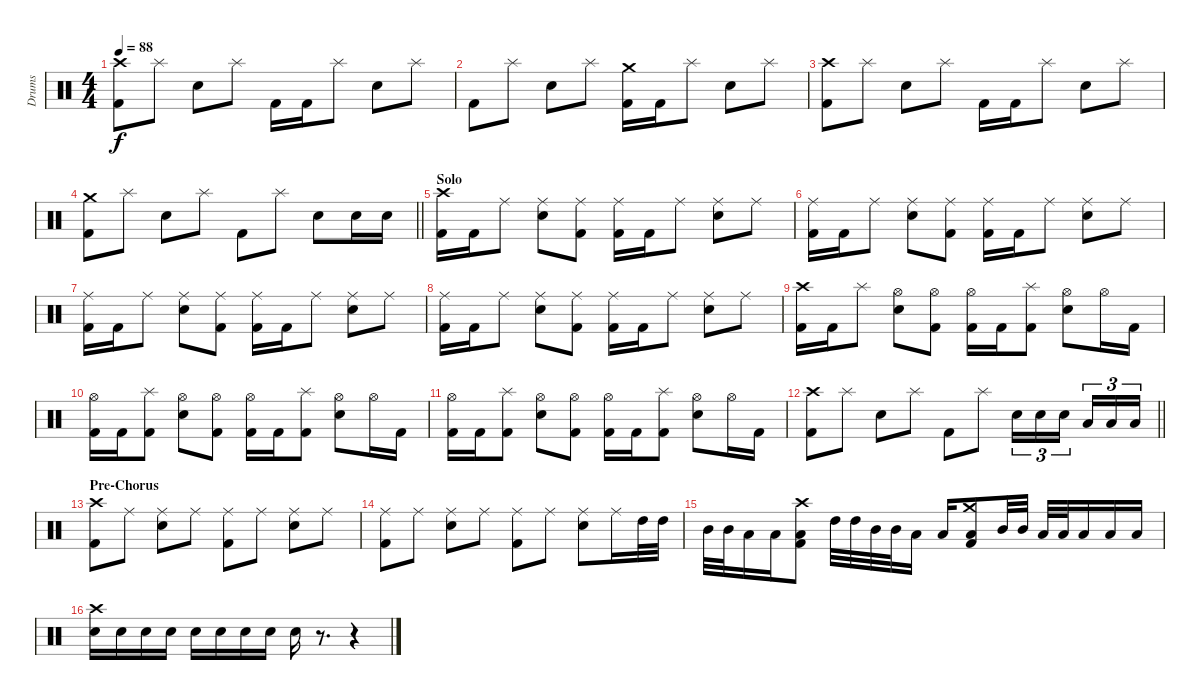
\track ("Drums" "Drums") {instrument percussion}
\staff {score}
\articulation defaults
\ts (4 4)
\tempo 88
\clef neutral
\ks c
("Crash high (hit)" "Kick (hit) 2").8{dy f} "Splash (hit)".8 "Snare (hit) 2".8 "Splash (hit)".8 "Kick (hit) 2".16 "Kick (hit) 2".16 "Splash (hit)".8 "Snare (hit) 2".8 "Splash (hit)".8 |
"Kick (hit) 2".8 "Splash (hit)".8 "Snare (hit) 2".8 "Splash (hit)".8 ("Crash medium (hit)" "Kick (hit) 2").16 "Kick (hit) 2".16 "Splash (hit)".8 "Snare (hit) 2".8 "Splash (hit)".8 |
("Crash high (hit)" "Kick (hit) 2").8 "Splash (hit)".8 "Snare (hit) 2".8 "Splash (hit)".8 "Kick (hit) 2".16 "Kick (hit) 2".16 "Splash (hit)".8 "Snare (hit) 2".8 "Splash (hit)".8 |
\barLineRight lightlight
("Crash medium (hit)" "Kick (hit) 2").8 "Splash (hit)".8 "Snare (hit) 2".8 "Splash (hit)".8 "Kick (hit) 2".8 "Splash (hit)".8 "Snare (hit) 2".8 "Snare (hit) 2".16 "Snare (hit) 2".16 |
\section ("" "Solo")
("Crash high (hit)" "Kick (hit) 2").16 "Kick (hit) 2".16 "Ride (middle)".8 ("Ride (middle)" "Snare (hit) 2").8 ("Ride (middle)" "Kick (hit) 2").8 ("Ride (middle)" "Kick (hit) 2").16 "Kick (hit) 2".16 "Ride (middle)".8 ("Ride (middle)" "Snare (hit) 2").8 "Ride (middle)".8 |
("Ride (middle)" "Kick (hit) 2").16 "Kick (hit) 2".16 "Ride (middle)".8 ("Ride (middle)" "Snare (hit) 2").8 ("Ride (middle)" "Kick (hit) 2").8 ("Ride (middle)" "Kick (hit) 2").16 "Kick (hit) 2".16 "Ride (middle)".8 ("Ride (middle)" "Snare (hit) 2").8 "Ride (middle)".8 |
("Ride (middle)" "Kick (hit) 2").16 "Kick (hit) 2".16 "Ride (middle)".8 ("Ride (middle)" "Snare (hit) 2").8 ("Ride (middle)" "Kick (hit) 2").8 ("Ride (middle)" "Kick (hit) 2").16 "Kick (hit) 2".16 "Ride (middle)".8 ("Ride (middle)" "Snare (hit) 2").8 "Ride (middle)".8 |
("Ride (middle)" "Kick (hit) 2").16 "Kick (hit) 2".16 "Ride (middle)".8 ("Ride (middle)" "Snare (hit) 2").8 ("Ride (middle)" "Kick (hit) 2").8 ("Ride (middle)" "Kick (hit) 2").16 "Kick (hit) 2".16 "Ride (middle)".8 ("Ride (middle)" "Snare (hit) 2").8 "Ride (middle)".8 |
("Crash high (hit)" "Kick (hit) 2").16 "Kick (hit) 2".16 "Splash (hit)".8 ("Hi-Hat (open)" "Snare (hit) 2").8 ("Hi-Hat (open)" "Kick (hit) 2").8 ("Hi-Hat (open)" "Kick (hit) 2").16 "Kick (hit) 2".16 ("Splash (hit)" "Kick (hit) 2").8 ("Hi-Hat (open)" "Snare (hit) 2").8 "Hi-Hat (open)".16 "Kick (hit) 2".16 |
("Hi-Hat (open)" "Kick (hit) 2").16 "Kick (hit) 2".16 ("Splash (hit)" "Kick (hit) 2").8 ("Hi-Hat (open)" "Snare (hit) 2").8 ("Hi-Hat (open)" "Kick (hit) 2").8 ("Hi-Hat (open)" "Kick (hit) 2").16 "Kick (hit) 2".16 ("Splash (hit)" "Kick (hit) 2").8 ("Hi-Hat (open)" "Snare (hit) 2").8 "Hi-Hat (open)".16 "Kick (hit) 2".16 |
("Hi-Hat (open)" "Kick (hit) 2").16 "Kick (hit) 2".16 ("Splash (hit)" "Kick (hit) 2").8 ("Hi-Hat (open)" "Snare (hit) 2").8 ("Hi-Hat (open)" "Kick (hit) 2").8 ("Hi-Hat (open)" "Kick (hit) 2").16 "Kick (hit) 2".16 ("Splash (hit)" "Kick (hit) 2").8 ("Hi-Hat (open)" "Snare (hit) 2").8 "Hi-Hat (open)".16 "Kick (hit) 2".16 |
\barLineRight lightlight
("Crash high (hit)" "Kick (hit) 2").8 "Splash (hit)".8 "Snare (hit) 2".8 "Splash (hit)".8 "Kick (hit) 2".8 "Splash (hit)".8 "Snare (hit) 2".16{tu (3 2)} "Snare (hit) 2".16{tu (3 2)} "Snare (hit) 2".16{tu (3 2) beam splitsecondary} "Low Tom (hit)".16{tu (3 2)} "Low Tom (hit)".16{tu (3 2)} "Low Tom (hit)".16{tu (3 2)} |
\section ("" "Pre-Chorus")
("Crash high (hit)" "Kick (hit) 2").8 "Ride (middle)".8 ("Ride (middle)" "Snare (hit) 2").8 "Ride (middle)".8 ("Ride (middle)" "Kick (hit) 2").8 "Ride (middle)".8 ("Ride (middle)" "Snare (hit) 2").8 "Ride (middle)".8 |
("Ride (middle)" "Kick (hit) 2").8 "Ride (middle)".8 ("Ride (middle)" "Snare (hit) 2").8 "Ride (middle)".8 ("Ride (middle)" "Kick (hit) 2").8 "Ride (middle)".8 ("Ride (middle)" "Snare (hit) 2").8 "Ride (middle)".16 "High Tom (hit)".32 "High Tom (hit)".32 |
"Mid Tom (hit)".32 "Mid Tom (hit)".32 "Low Tom (hit)".16 "Low Tom (hit)".16 ("Crash high (hit)" "Low Tom (hit)" "Kick (hit) 2").8 "High Tom (hit)".32 "High Tom (hit)".32 "Mid Tom (hit)".32 "Mid Tom (hit)".32 "Low Tom (hit)".16 "Low Tom (hit)".16 ("Crash medium (hit)" "Low Tom (hit)" "Kick (hit) 2").8 "Mid Tom (hit)".32 "Mid Tom (hit)".32 "Low Tom (hit)".32 "Low Tom (hit)".32 "Low Tom (hit)".16 "Low Tom (hit)".16 "Low Tom (hit)".16 |
("Crash high (hit)" "Snare (hit) 2").16 "Snare (hit) 2".16 "Snare (hit) 2".16 "Snare (hit) 2".16 "Snare (hit) 2".16 "Snare (hit) 2".16 "Snare (hit) 2".16 "Snare (hit) 2".16 "Snare (hit) 2".16 r.8{d} r.4
